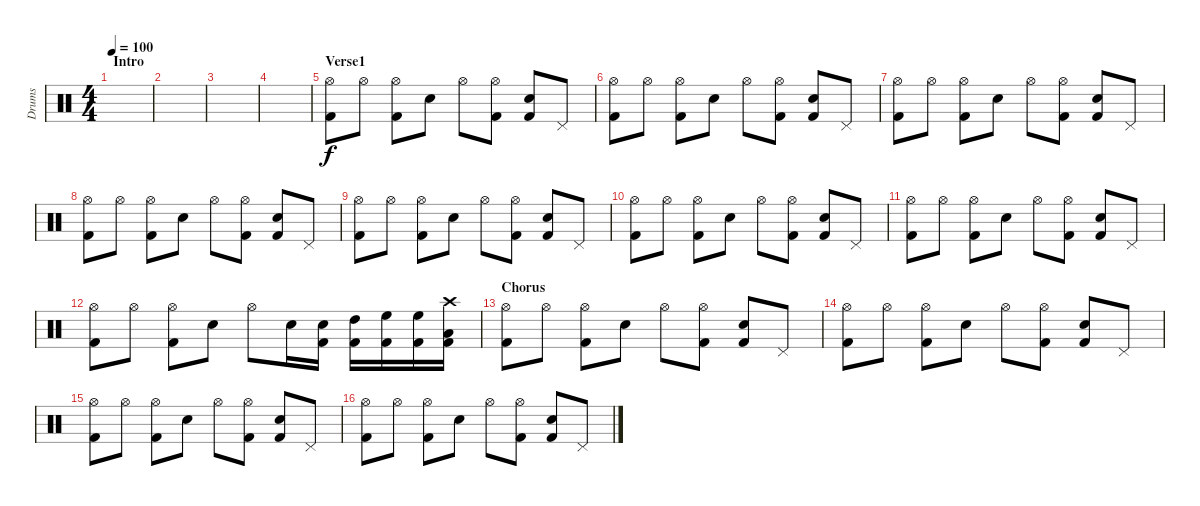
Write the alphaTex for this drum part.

\track ("Drums" "Drums") {instrument percussion}
\staff {score}
\articulation defaults
\ts (4 4)
\section ("" "Intro")
\tempo 100
\clef neutral
\ks c
|
|
|
|
\section ("" "Verse1")
("Hi-Hat (open)" "Kick (hit) 2").8 "Hi-Hat (open)".8 ("Hi-Hat (open)" "Kick (hit) 2").8 "Snare (hit) 2".8 "Hi-Hat (open)".8 ("Hi-Hat (open)" "Kick (hit) 2").8 ("Snare (hit) 2" "Kick (hit) 2").8 "Pedal Hi-Hat (hit)".8 |
("Hi-Hat (open)" "Kick (hit) 2").8 "Hi-Hat (open)".8 ("Hi-Hat (open)" "Kick (hit) 2").8 "Snare (hit) 2".8 "Hi-Hat (open)".8 ("Hi-Hat (open)" "Kick (hit) 2").8 ("Snare (hit) 2" "Kick (hit) 2").8 "Pedal Hi-Hat (hit)".8 |
("Hi-Hat (open)" "Kick (hit) 2").8 "Hi-Hat (open)".8 ("Hi-Hat (open)" "Kick (hit) 2").8 "Snare (hit) 2".8 "Hi-Hat (open)".8 ("Hi-Hat (open)" "Kick (hit) 2").8 ("Snare (hit) 2" "Kick (hit) 2").8 "Pedal Hi-Hat (hit)".8 |
("Hi-Hat (open)" "Kick (hit) 2").8 "Hi-Hat (open)".8 ("Hi-Hat (open)" "Kick (hit) 2").8 "Snare (hit) 2".8 "Hi-Hat (open)".8 ("Hi-Hat (open)" "Kick (hit) 2").8 ("Snare (hit) 2" "Kick (hit) 2").8 "Pedal Hi-Hat (hit)".8 |
("Hi-Hat (open)" "Kick (hit) 2").8 "Hi-Hat (open)".8 ("Hi-Hat (open)" "Kick (hit) 2").8 "Snare (hit) 2".8 "Hi-Hat (open)".8 ("Hi-Hat (open)" "Kick (hit) 2").8 ("Snare (hit) 2" "Kick (hit) 2").8 "Pedal Hi-Hat (hit)".8 |
("Hi-Hat (open)" "Kick (hit) 2").8 "Hi-Hat (open)".8 ("Hi-Hat (open)" "Kick (hit) 2").8 "Snare (hit) 2".8 "Hi-Hat (open)".8 ("Hi-Hat (open)" "Kick (hit) 2").8 ("Snare (hit) 2" "Kick (hit) 2").8 "Pedal Hi-Hat (hit)".8 |
("Hi-Hat (open)" "Kick (hit) 2").8 "Hi-Hat (open)".8 ("Hi-Hat (open)" "Kick (hit) 2").8 "Snare (hit) 2".8 "Hi-Hat (open)".8 ("Hi-Hat (open)" "Kick (hit) 2").8 ("Snare (hit) 2" "Kick (hit) 2").8 "Pedal Hi-Hat (hit)".8 |
("Hi-Hat (open)" "Kick (hit) 2").8 "Hi-Hat (open)".8 ("Hi-Hat (open)" "Kick (hit) 2").8 "Snare (hit) 2".8 "Hi-Hat (open)".8 "Snare (hit) 2".16 ("Snare (hit) 2" "Kick (hit) 2").16 ("High Tom (hit)" "Kick (hit) 2").16 ("High Floor Tom (hit)" "Kick (hit) 2").16 ("High Floor Tom (hit)" "Kick (hit) 2").16 ("Crash high (hit)" "Low Tom (hit)" "Kick (hit) 2").16 |
\section ("" "Chorus")
("Hi-Hat (open)" "Kick (hit) 2").8 "Hi-Hat (open)".8 ("Hi-Hat (open)" "Kick (hit) 2").8 "Snare (hit) 2".8 "Hi-Hat (open)".8 ("Hi-Hat (open)" "Kick (hit) 2").8 ("Snare (hit) 2" "Kick (hit) 2").8 "Pedal Hi-Hat (hit)".8 |
("Hi-Hat (open)" "Kick (hit) 2").8 "Hi-Hat (open)".8 ("Hi-Hat (open)" "Kick (hit) 2").8 "Snare (hit) 2".8 "Hi-Hat (open)".8 ("Hi-Hat (open)" "Kick (hit) 2").8 ("Snare (hit) 2" "Kick (hit) 2").8 "Pedal Hi-Hat (hit)".8 |
("Hi-Hat (open)" "Kick (hit) 2").8 "Hi-Hat (open)".8 ("Hi-Hat (open)" "Kick (hit) 2").8 "Snare (hit) 2".8 "Hi-Hat (open)".8 ("Hi-Hat (open)" "Kick (hit) 2").8 ("Snare (hit) 2" "Kick (hit) 2").8 "Pedal Hi-Hat (hit)".8 |
("Hi-Hat (open)" "Kick (hit) 2").8 "Hi-Hat (open)".8 ("Hi-Hat (open)" "Kick (hit) 2").8 "Snare (hit) 2".8 "Hi-Hat (open)".8 ("Hi-Hat (open)" "Kick (hit) 2").8 ("Snare (hit) 2" "Kick (hit) 2").8 "Pedal Hi-Hat (hit)".8
